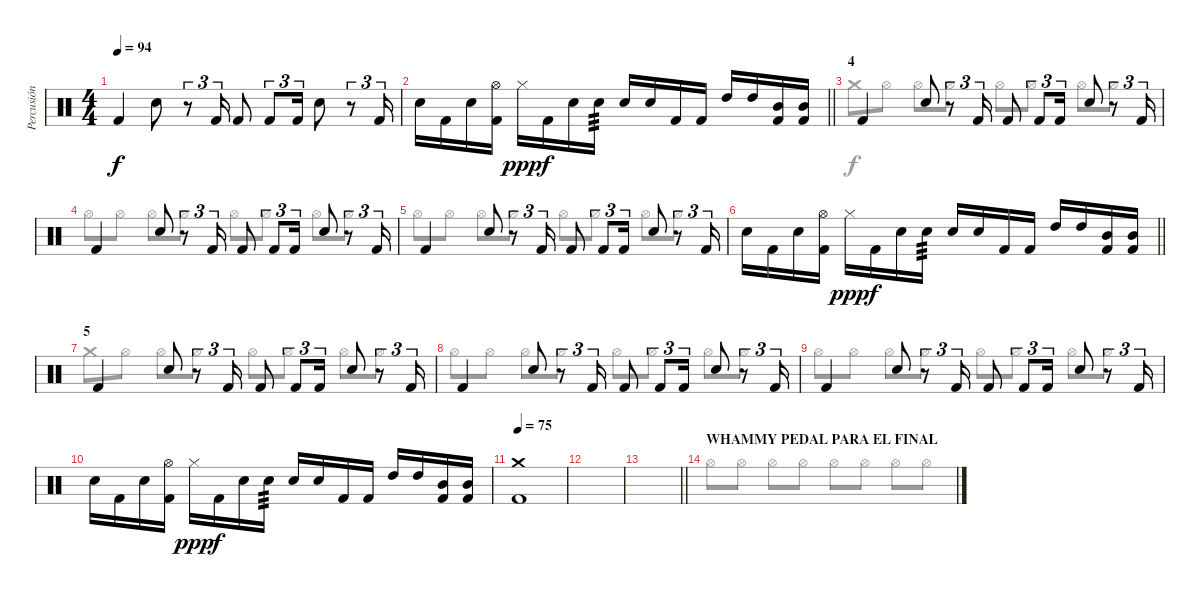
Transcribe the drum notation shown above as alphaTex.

\track ("Percusión" "Percusión") {instrument percussion}
\staff {score}
\articulation defaults
\voice
\ts (4 4)
\tempo 94
\clef neutral
\ks c "Kick (hit) 2".4{dy f} "Electric Snare (hit)".8
r.8{tu (3 2)} "Kick (hit) 2".16{tu (3 2)} "Kick (hit) 2".8 "Kick (hit) 2".8{tu (3 2)} "Kick (hit) 2".16{tu (3 2)} "Electric Snare (hit)".8 r.8{tu (3 2)} "Kick (hit) 2".16{tu (3 2)} |
\barLineRight lightlight "Electric Snare (hit)".16 "Kick (hit) 2".16 "Electric Snare (hit)".16
("Hi-Hat (open)" "Kick (hit) 2").16 "Hi-Hat (closed)".16{dy ppp} "Kick (hit) 2".16{dy f} "Electric Snare (hit)".16 "Electric Snare (hit)".16{tp 3} "Electric Snare (hit)".16 "Electric Snare (hit)".16 "Kick (hit) 2".16 "Kick (hit) 2".16 "High Tom (hit)".16 "High Tom (hit)".16 ("Mid Tom (hit)" "Kick (hit) 2").16 ("Mid Tom (hit)" "Kick (hit) 2").16 |
\section ("" "4")
"Kick (hit) 2".4 "Electric Snare (hit)".8 r.8{tu (3 2)} "Kick (hit) 2".16{tu (3 2)} "Kick (hit) 2".8 "Kick (hit) 2".8{tu (3 2)} "Kick (hit) 2".16{tu (3 2)} "Electric Snare (hit)".8 r.8{tu (3 2)} "Kick (hit) 2".16{tu (3 2)} |
"Kick (hit) 2".4 "Electric Snare (hit)".8 r.8{tu (3 2)} "Kick (hit) 2".16{tu (3 2)} "Kick (hit) 2".8 "Kick (hit) 2".8{tu (3 2)} "Kick (hit) 2".16{tu (3 2)} "Electric Snare (hit)".8 r.8{tu (3 2)} "Kick (hit) 2".16{tu (3 2)} |
"Kick (hit) 2".4 "Electric Snare (hit)".8 r.8{tu (3 2)} "Kick (hit) 2".16{tu (3 2)} "Kick (hit) 2".8 "Kick (hit) 2".8{tu (3 2)} "Kick (hit) 2".16{tu (3 2)} "Electric Snare (hit)".8 r.8{tu (3 2)} "Kick (hit) 2".16{tu (3 2)} |
\barLineRight lightlight "Electric Snare (hit)".16 "Kick (hit) 2".16 "Electric Snare (hit)".16
("Hi-Hat (open)" "Kick (hit) 2").16 "Hi-Hat (closed)".16{dy ppp} "Kick (hit) 2".16{dy f} "Electric Snare (hit)".16 "Electric Snare (hit)".16{tp 3} "Electric Snare (hit)".16 "Electric Snare (hit)".16 "Kick (hit) 2".16 "Kick (hit) 2".16 "High Tom (hit)".16 "High Tom (hit)".16 ("Mid Tom (hit)" "Kick (hit) 2").16 ("Mid Tom (hit)" "Kick (hit) 2").16 |
\section ("" "5")
"Kick (hit) 2".4 "Electric Snare (hit)".8 r.8{tu (3 2)} "Kick (hit) 2".16{tu (3 2)} "Kick (hit) 2".8 "Kick (hit) 2".8{tu (3 2)} "Kick (hit) 2".16{tu (3 2)} "Electric Snare (hit)".8 r.8{tu (3 2)} "Kick (hit) 2".16{tu (3 2)} |
"Kick (hit) 2".4 "Electric Snare (hit)".8 r.8{tu (3 2)} "Kick (hit) 2".16{tu (3 2)} "Kick (hit) 2".8 "Kick (hit) 2".8{tu (3 2)} "Kick (hit) 2".16{tu (3 2)} "Electric Snare (hit)".8 r.8{tu (3 2)} "Kick (hit) 2".16{tu (3 2)} |
"Kick (hit) 2".4 "Electric Snare (hit)".8 r.8{tu (3 2)} "Kick (hit) 2".16{tu (3 2)} "Kick (hit) 2".8 "Kick (hit) 2".8{tu (3 2)} "Kick (hit) 2".16{tu (3 2)} "Electric Snare (hit)".8 r.8{tu (3 2)} "Kick (hit) 2".16{tu (3 2)} |
"Electric Snare (hit)".16 "Kick (hit) 2".16 "Electric Snare (hit)".16 ("Hi-Hat (open)" "Kick (hit) 2").16 "Hi-Hat (closed)".16{dy ppp} "Kick (hit) 2".16{dy f} "Electric Snare (hit)".16 "Electric Snare (hit)".16{tp 3} "Electric Snare (hit)".16 "Electric Snare (hit)".16 "Kick (hit) 2".16 "Kick (hit) 2".16 "High Tom (hit)".16 "High Tom (hit)".16 ("Mid Tom (hit)" "Kick (hit) 2").16 ("Mid Tom (hit)" "Kick (hit) 2").16 |
\tempo 75
("Kick (hit) 2" "Crash medium (hit)").1 |
|
\barLineRight lightlight
|
\section ("" "WHAMMY PEDAL PARA EL FINAL")
\voice
\clef neutral
\ottava regular
\simile none
\ks c "Hi-Hat (open)".8{dy f} "Hi-Hat (open)".8 "Hi-Hat (open)".8 "Hi-Hat (open)".8 "Hi-Hat (open)".8 "Hi-Hat (open)".8 "Hi-Hat (open)".8 "Hi-Hat (open)".8
|
\barLineRight lightlight
|
"Crash medium (hit)".8 "Hi-Hat (open)".8 "Hi-Hat (open)".8 "Hi-Hat (open)".8 "Hi-Hat (open)".8 "Hi-Hat (open)".8 "Hi-Hat (open)".8 "Hi-Hat (open)".8 |
"Hi-Hat (open)".8 "Hi-Hat (open)".8 "Hi-Hat (open)".8 "Hi-Hat (open)".8 "Hi-Hat (open)".8 "Hi-Hat (open)".8 "Hi-Hat (open)".8 "Hi-Hat (open)".8 |
"Hi-Hat (open)".8 "Hi-Hat (open)".8 "Hi-Hat (open)".8 "Hi-Hat (open)".8 "Hi-Hat (open)".8 "Hi-Hat (open)".8 "Hi-Hat (open)".8 "Hi-Hat (open)".8 |
\barLineRight lightlight
|
"Crash medium (hit)".8 "Hi-Hat (open)".8 "Hi-Hat (open)".8 "Hi-Hat (open)".8 "Hi-Hat (open)".8 "Hi-Hat (open)".8 "Hi-Hat (open)".8 "Hi-Hat (open)".8 |
"Hi-Hat (open)".8 "Hi-Hat (open)".8 "Hi-Hat (open)".8 "Hi-Hat (open)".8 "Hi-Hat (open)".8 "Hi-Hat (open)".8 "Hi-Hat (open)".8 "Hi-Hat (open)".8 |
"Hi-Hat (open)".8 "Hi-Hat (open)".8 "Hi-Hat (open)".8 "Hi-Hat (open)".8 "Hi-Hat (open)".8 "Hi-Hat (open)".8 "Hi-Hat (open)".8 "Hi-Hat (open)".8 |
|
|
|
\barLineRight lightlight
|
